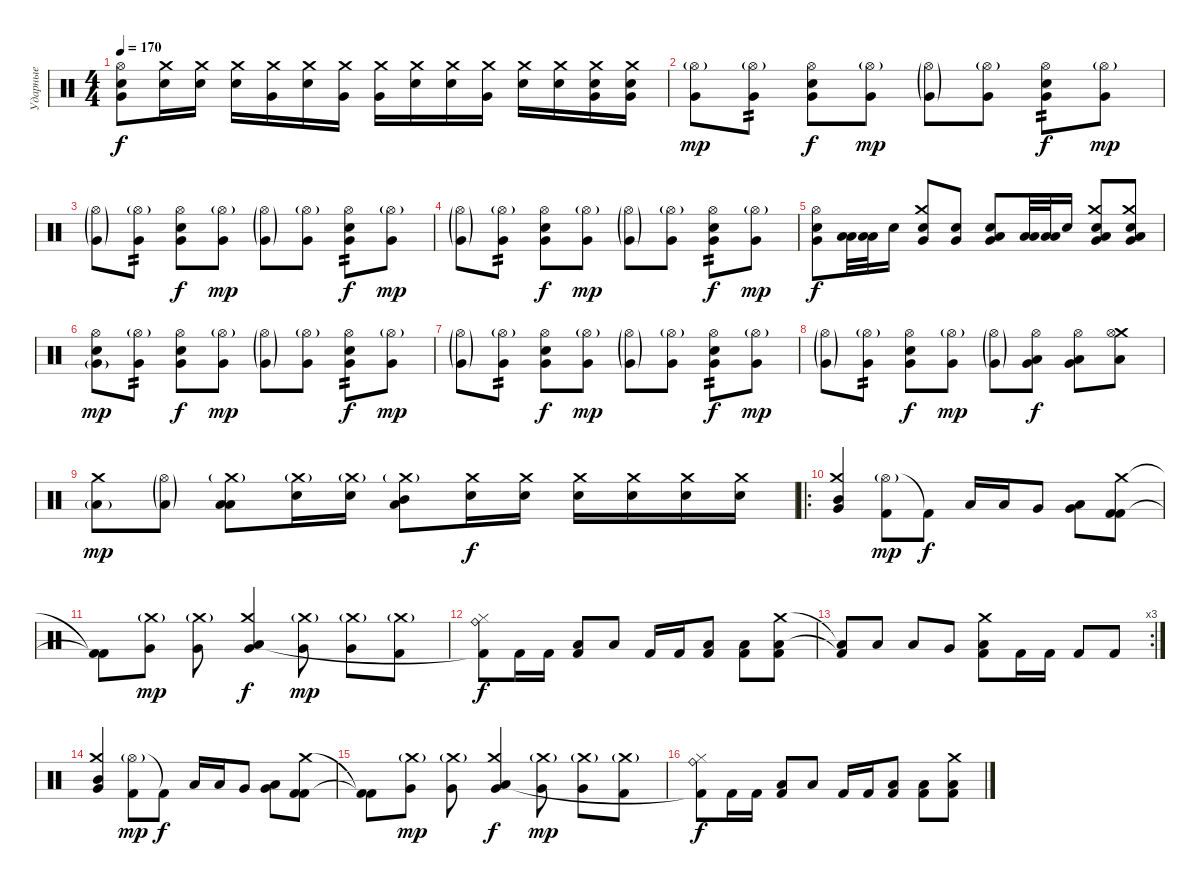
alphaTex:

\track ("Ударные" "Ударные") {instrument percussion}
\staff {score}
\articulation defaults
\ts (4 4)
\tempo 170
\clef neutral
\ks c
("Hi-Hat (open)" "Snare (hit) 2" "Very Low Tom (hit)").8{dy f} ("Crash medium (hit)" "Snare (hit) 2").16 ("Crash medium (hit)" "Snare (hit) 2").16 ("Crash medium (hit)" "Snare (hit) 2").16 ("Crash medium (hit)" "Very Low Tom (hit)").16 ("Crash medium (hit)" "Snare (hit) 2").16 ("Crash medium (hit)" "Very Low Tom (hit)").16 ("Crash medium (hit)" "Very Low Tom (hit)").16 ("Crash medium (hit)" "Snare (hit) 2").16 ("Crash medium (hit)" "Snare (hit) 2").16 ("Crash medium (hit)" "Very Low Tom (hit)").16 ("Crash medium (hit)" "Snare (hit) 2").16 ("Crash medium (hit)" "Snare (hit) 2").16 ("Crash medium (hit)" "Snare (hit) 2" "Very Low Tom (hit)").16 ("Crash medium (hit)" "Snare (hit) 2" "Very Low Tom (hit)").16 |
("Hi-Hat (open)"{g} "Very Low Tom (hit)").8{dy mp} ("Hi-Hat (open)"{g} "Very Low Tom (hit)").8{tp 2} ("Hi-Hat (open)" "Electric Snare (hit)" "Very Low Tom (hit)").8{dy f} ("Hi-Hat (open)"{g} "Very Low Tom (hit)").8{dy mp} ("Hi-Hat (open)"{g} "Very Low Tom (hit)"{g}).8 ("Hi-Hat (open)"{g} "Very Low Tom (hit)").8 ("Hi-Hat (open)" "Electric Snare (hit)" "Very Low Tom (hit)").8{tp 2 dy f} ("Hi-Hat (open)"{g} "Very Low Tom (hit)").8{dy mp} |
("Hi-Hat (open)"{g} "Very Low Tom (hit)"{g}).8 ("Hi-Hat (open)"{g} "Very Low Tom (hit)").8{tp 2} ("Hi-Hat (open)" "Electric Snare (hit)" "Very Low Tom (hit)").8{dy f} ("Hi-Hat (open)"{g} "Very Low Tom (hit)").8{dy mp} ("Hi-Hat (open)"{g} "Very Low Tom (hit)"{g}).8 ("Hi-Hat (open)"{g} "Very Low Tom (hit)").8 ("Hi-Hat (open)" "Electric Snare (hit)" "Very Low Tom (hit)").8{tp 2 dy f} ("Hi-Hat (open)"{g} "Very Low Tom (hit)").8{dy mp} |
("Hi-Hat (open)"{g} "Very Low Tom (hit)"{g}).8 ("Hi-Hat (open)"{g} "Very Low Tom (hit)").8{tp 2} ("Hi-Hat (open)" "Electric Snare (hit)" "Very Low Tom (hit)").8{dy f} ("Hi-Hat (open)"{g} "Very Low Tom (hit)").8{dy mp} ("Hi-Hat (open)"{g} "Very Low Tom (hit)"{g}).8 ("Hi-Hat (open)"{g} "Very Low Tom (hit)").8 ("Hi-Hat (open)" "Electric Snare (hit)" "Very Low Tom (hit)").8{tp 2 dy f} ("Hi-Hat (open)"{g} "Very Low Tom (hit)").8{dy mp} |
("Hi-Hat (open)" "Electric Snare (hit)" "Very Low Tom (hit)").8{dy f} ("Low Tom (hit)" "Low Tom (hit)").32 ("Low Tom (hit)" "Low Tom (hit)").32 "Electric Snare (hit)".16 ("Crash medium (hit)" "Electric Snare (hit)" "Very Low Tom (hit)").8 ("Electric Snare (hit)" "Very Low Tom (hit)").8 ("Electric Snare (hit)" "Low Tom (hit)" "Very Low Tom (hit)").8 ("Low Tom (hit)" "Low Tom (hit)").32 ("Low Tom (hit)" "Low Tom (hit)").32 "Electric Snare (hit)".16 ("Crash medium (hit)" "Electric Snare (hit)" "Low Tom (hit)" "Very Low Tom (hit)").8 ("Crash medium (hit)" "Electric Snare (hit)" "Low Tom (hit)" "Very Low Tom (hit)").8 |
("Hi-Hat (open)" "Electric Snare (hit)" "Very Low Tom (hit)"{g}).8{dy mp} ("Hi-Hat (open)"{g} "Very Low Tom (hit)").8{tp 2} ("Hi-Hat (open)" "Electric Snare (hit)" "Very Low Tom (hit)").8{dy f} ("Hi-Hat (open)"{g} "Very Low Tom (hit)").8{dy mp} ("Hi-Hat (open)"{g} "Very Low Tom (hit)"{g}).8 ("Hi-Hat (open)"{g} "Very Low Tom (hit)").8 ("Hi-Hat (open)" "Electric Snare (hit)" "Very Low Tom (hit)").8{tp 2 dy f} ("Hi-Hat (open)"{g} "Very Low Tom (hit)").8{dy mp} |
("Hi-Hat (open)"{g} "Very Low Tom (hit)"{g}).8 ("Hi-Hat (open)"{g} "Very Low Tom (hit)").8{tp 2} ("Hi-Hat (open)" "Electric Snare (hit)" "Very Low Tom (hit)").8{dy f} ("Hi-Hat (open)"{g} "Very Low Tom (hit)").8{dy mp} ("Hi-Hat (open)"{g} "Very Low Tom (hit)"{g}).8 ("Hi-Hat (open)"{g} "Very Low Tom (hit)").8 ("Hi-Hat (open)" "Electric Snare (hit)" "Very Low Tom (hit)").8{tp 2 dy f} ("Hi-Hat (open)"{g} "Very Low Tom (hit)").8{dy mp} |
("Hi-Hat (open)"{g} "Very Low Tom (hit)"{g}).8 ("Hi-Hat (open)"{g} "Very Low Tom (hit)").8{tp 2} ("Hi-Hat (open)" "Electric Snare (hit)" "Very Low Tom (hit)").8{dy f} ("Hi-Hat (open)"{g} "Very Low Tom (hit)").8{dy mp} ("Hi-Hat (open)"{g} "Very Low Tom (hit)"{g}).8 ("Hi-Hat (open)" "Low Tom (hit)" "Very Low Tom (hit)").8{dy f} ("Hi-Hat (open)" "Low Tom (hit)" "Very Low Tom (hit)").8 ("Crash medium (hit)" "Hi-Hat (open)" "Low Tom (hit)").8 |
("Crash medium (hit)" "Low Tom (hit)"{g}).8{dy mp} ("Hi-Hat (open)"{g} "Low Tom (hit)"{g}).8 ("Crash medium (hit)"{g} "Low Tom (hit)" "Low Tom (hit)").8 ("Crash medium (hit)"{g} "Electric Snare (hit)").16 ("Crash medium (hit)"{g} "Electric Snare (hit)").16 ("Crash medium (hit)"{g} "Mid Tom (hit)" "Low Tom (hit)").8 ("Crash medium (hit)" "Electric Snare (hit)").16{dy f} ("Crash medium (hit)" "Electric Snare (hit)").16 ("Crash medium (hit)" "Electric Snare (hit)").16 ("Crash medium (hit)" "Electric Snare (hit)").16 ("Crash medium (hit)" "Electric Snare (hit)").16 ("Crash medium (hit)" "Electric Snare (hit)").16 |
\ro
("Crash medium (hit)" "Mid Tom (hit)" "Very Low Tom (hit)").4 ("Hi-Hat (open)"{g} "Kick (hit) 2").8{dy mp} "Kick (hit) 2"{t}.8{dy f} "Low Tom (hit)".16 "Low Tom (hit)".16 "Very Low Tom (hit)".8 ("Low Tom (hit)" "Very Low Tom (hit)").8 ("Crash medium (hit)" "Kick (hit) 2" "Kick (hit) 2").8 |
("Kick (hit) 2"{t} "Kick (hit) 2"{t}).8 ("Crash medium (hit)"{g} "Very Low Tom (hit)").8{dy mp} ("Crash medium (hit)"{g} "Very Low Tom (hit)").8 ("Crash medium (hit)" "Very Low Tom (hit)" "Low Tom (hit)").4{dy f} ("Crash medium (hit)"{g} "Very Low Tom (hit)").8{dy mp} ("Crash medium (hit)"{g} "Very Low Tom (hit)").8 ("Crash medium (hit)"{g} "Kick (hit) 2").8 |
("Ride (bell)" "Hi-Hat (closed)" "Kick (hit) 2"{t}).8{dy f} "Kick (hit) 2".16 "Kick (hit) 2".16 ("Low Tom (hit)" "Kick (hit) 2").8 "Low Tom (hit)".8 "Kick (hit) 2".16 "Kick (hit) 2".16 ("Low Tom (hit)" "Kick (hit) 2").8 ("Low Tom (hit)" "Kick (hit) 2").8 ("Crash medium (hit)" "Low Tom (hit)" "Kick (hit) 2").8 |
\rc 3
("Low Tom (hit)"{t} "Kick (hit) 2"{t}).8 "Low Floor Tom (hit)".8 "Low Tom (hit)".8 "Very Low Tom (hit)".8 ("Crash medium (hit)" "Low Tom (hit)" "Kick (hit) 2").8 "Kick (hit) 2".16 "Kick (hit) 2".16 "Kick (hit) 2".8 "Kick (hit) 2".8 |
("Crash medium (hit)" "Mid Tom (hit)" "Very Low Tom (hit)").4 ("Hi-Hat (open)"{g} "Kick (hit) 2").8{dy mp} "Kick (hit) 2"{t}.8{dy f} "Low Tom (hit)".16 "Low Tom (hit)".16 "Very Low Tom (hit)".8 ("Low Tom (hit)" "Very Low Tom (hit)").8 ("Crash medium (hit)" "Kick (hit) 2" "Kick (hit) 2").8 |
("Kick (hit) 2"{t} "Kick (hit) 2"{t}).8 ("Crash medium (hit)"{g} "Very Low Tom (hit)").8{dy mp} ("Crash medium (hit)"{g} "Very Low Tom (hit)").8 ("Crash medium (hit)" "Very Low Tom (hit)" "Low Tom (hit)").4{dy f} ("Crash medium (hit)"{g} "Very Low Tom (hit)").8{dy mp} ("Crash medium (hit)"{g} "Very Low Tom (hit)").8 ("Crash medium (hit)"{g} "Kick (hit) 2").8 |
("Ride (bell)" "Hi-Hat (closed)" "Kick (hit) 2"{t}).8{dy f} "Kick (hit) 2".16 "Kick (hit) 2".16 ("Low Tom (hit)" "Kick (hit) 2").8 "Low Tom (hit)".8 "Kick (hit) 2".16 "Kick (hit) 2".16 ("Low Tom (hit)" "Kick (hit) 2").8 ("Low Tom (hit)" "Kick (hit) 2").8 ("Crash medium (hit)" "Low Tom (hit)" "Kick (hit) 2").8
